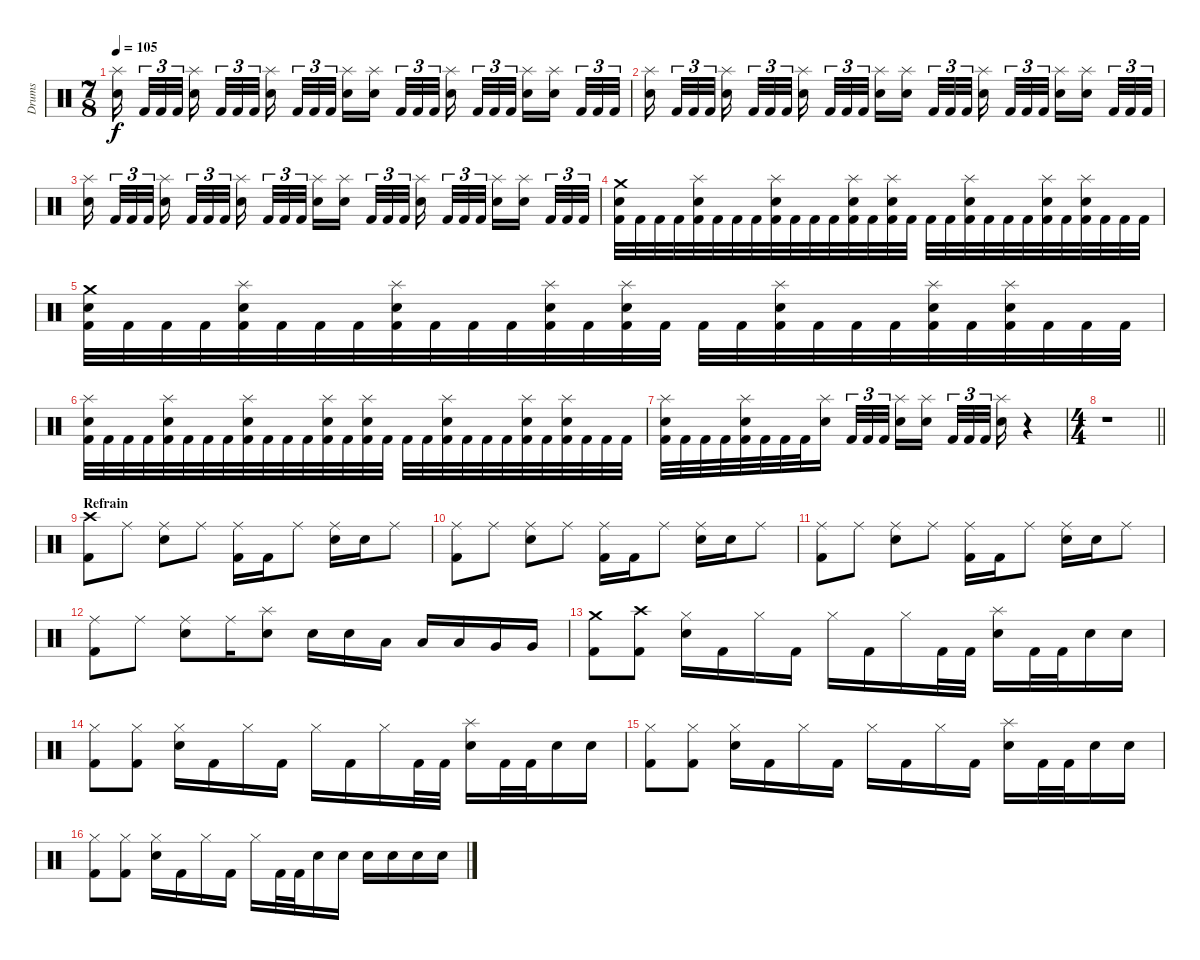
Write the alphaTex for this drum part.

\track ("Drums" "Drums") {instrument percussion}
\staff {score}
\articulation defaults
\ts (7 8)
\tempo 105
\clef neutral
\ks c
("Splash (hit)" "Electric Snare (hit)").16{dy f beam splitsecondary} "Kick (hit) 2".32{tu (3 2)} "Kick (hit) 2".32{tu (3 2)} "Kick (hit) 2".32{tu (3 2)} ("Splash (hit)" "Electric Snare (hit)").16{beam splitsecondary} "Kick (hit) 2".32{tu (3 2)} "Kick (hit) 2".32{tu (3 2)} "Kick (hit) 2".32{tu (3 2)} ("Splash (hit)" "Electric Snare (hit)").16{beam splitsecondary} "Kick (hit) 2".32{tu (3 2)} "Kick (hit) 2".32{tu (3 2)} "Kick (hit) 2".32{tu (3 2)} ("Splash (hit)" "Electric Snare (hit)").16 ("Splash (hit)" "Electric Snare (hit)").16 "Kick (hit) 2".32{tu (3 2)} "Kick (hit) 2".32{tu (3 2)} "Kick (hit) 2".32{tu (3 2) beam splitsecondary} ("Splash (hit)" "Electric Snare (hit)").16 "Kick (hit) 2".32{tu (3 2)} "Kick (hit) 2".32{tu (3 2)} "Kick (hit) 2".32{tu (3 2) beam splitsecondary} ("Splash (hit)" "Electric Snare (hit)").16 ("Splash (hit)" "Electric Snare (hit)").16{beam splitsecondary} "Kick (hit) 2".32{tu (3 2)} "Kick (hit) 2".32{tu (3 2)} "Kick (hit) 2".32{tu (3 2)} |
("Splash (hit)" "Electric Snare (hit)").16{beam splitsecondary} "Kick (hit) 2".32{tu (3 2)} "Kick (hit) 2".32{tu (3 2)} "Kick (hit) 2".32{tu (3 2)} ("Splash (hit)" "Electric Snare (hit)").16{beam splitsecondary} "Kick (hit) 2".32{tu (3 2)} "Kick (hit) 2".32{tu (3 2)} "Kick (hit) 2".32{tu (3 2)} ("Splash (hit)" "Electric Snare (hit)").16{beam splitsecondary} "Kick (hit) 2".32{tu (3 2)} "Kick (hit) 2".32{tu (3 2)} "Kick (hit) 2".32{tu (3 2)} ("Splash (hit)" "Electric Snare (hit)").16 ("Splash (hit)" "Electric Snare (hit)").16 "Kick (hit) 2".32{tu (3 2)} "Kick (hit) 2".32{tu (3 2)} "Kick (hit) 2".32{tu (3 2) beam splitsecondary} ("Splash (hit)" "Electric Snare (hit)").16 "Kick (hit) 2".32{tu (3 2)} "Kick (hit) 2".32{tu (3 2)} "Kick (hit) 2".32{tu (3 2) beam splitsecondary} ("Splash (hit)" "Electric Snare (hit)").16 ("Splash (hit)" "Electric Snare (hit)").16{beam splitsecondary} "Kick (hit) 2".32{tu (3 2)} "Kick (hit) 2".32{tu (3 2)} "Kick (hit) 2".32{tu (3 2)} |
("Splash (hit)" "Electric Snare (hit)").16{beam splitsecondary} "Kick (hit) 2".32{tu (3 2)} "Kick (hit) 2".32{tu (3 2)} "Kick (hit) 2".32{tu (3 2)} ("Splash (hit)" "Electric Snare (hit)").16{beam splitsecondary} "Kick (hit) 2".32{tu (3 2)} "Kick (hit) 2".32{tu (3 2)} "Kick (hit) 2".32{tu (3 2)} ("Splash (hit)" "Electric Snare (hit)").16{beam splitsecondary} "Kick (hit) 2".32{tu (3 2)} "Kick (hit) 2".32{tu (3 2)} "Kick (hit) 2".32{tu (3 2)} ("Splash (hit)" "Electric Snare (hit)").16 ("Splash (hit)" "Electric Snare (hit)").16 "Kick (hit) 2".32{tu (3 2)} "Kick (hit) 2".32{tu (3 2)} "Kick (hit) 2".32{tu (3 2) beam splitsecondary} ("Splash (hit)" "Electric Snare (hit)").16 "Kick (hit) 2".32{tu (3 2)} "Kick (hit) 2".32{tu (3 2)} "Kick (hit) 2".32{tu (3 2) beam splitsecondary} ("Splash (hit)" "Electric Snare (hit)").16 ("Splash (hit)" "Electric Snare (hit)").16{beam splitsecondary} "Kick (hit) 2".32{tu (3 2)} "Kick (hit) 2".32{tu (3 2)} "Kick (hit) 2".32{tu (3 2)} |
("Crash medium (hit)" "Electric Snare (hit)" "Kick (hit) 2").32 "Kick (hit) 2".32 "Kick (hit) 2".32 "Kick (hit) 2".32 ("Splash (hit)" "Electric Snare (hit)" "Kick (hit) 2").32 "Kick (hit) 2".32 "Kick (hit) 2".32 "Kick (hit) 2".32 ("Splash (hit)" "Electric Snare (hit)" "Kick (hit) 2").32 "Kick (hit) 2".32 "Kick (hit) 2".32 "Kick (hit) 2".32 ("Splash (hit)" "Electric Snare (hit)" "Kick (hit) 2").32 "Kick (hit) 2".32 ("Splash (hit)" "Electric Snare (hit)" "Kick (hit) 2").32 "Kick (hit) 2".32 "Kick (hit) 2".32 "Kick (hit) 2".32 ("Splash (hit)" "Electric Snare (hit)" "Kick (hit) 2").32 "Kick (hit) 2".32 "Kick (hit) 2".32 "Kick (hit) 2".32 ("Splash (hit)" "Electric Snare (hit)" "Kick (hit) 2").32 "Kick (hit) 2".32 ("Splash (hit)" "Electric Snare (hit)" "Kick (hit) 2").32 "Kick (hit) 2".32 "Kick (hit) 2".32 "Kick (hit) 2".32 |
("Crash medium (hit)" "Electric Snare (hit)" "Kick (hit) 2").32 "Kick (hit) 2".32 "Kick (hit) 2".32 "Kick (hit) 2".32 ("Splash (hit)" "Electric Snare (hit)" "Kick (hit) 2").32 "Kick (hit) 2".32 "Kick (hit) 2".32 "Kick (hit) 2".32 ("Splash (hit)" "Electric Snare (hit)" "Kick (hit) 2").32 "Kick (hit) 2".32 "Kick (hit) 2".32 "Kick (hit) 2".32 ("Splash (hit)" "Electric Snare (hit)" "Kick (hit) 2").32 "Kick (hit) 2".32 ("Splash (hit)" "Electric Snare (hit)" "Kick (hit) 2").32 "Kick (hit) 2".32 "Kick (hit) 2".32 "Kick (hit) 2".32 ("Splash (hit)" "Electric Snare (hit)" "Kick (hit) 2").32 "Kick (hit) 2".32 "Kick (hit) 2".32 "Kick (hit) 2".32 ("Splash (hit)" "Electric Snare (hit)" "Kick (hit) 2").32 "Kick (hit) 2".32 ("Splash (hit)" "Electric Snare (hit)" "Kick (hit) 2").32 "Kick (hit) 2".32 "Kick (hit) 2".32 "Kick (hit) 2".32 |
("Splash (hit)" "Electric Snare (hit)" "Kick (hit) 2").32 "Kick (hit) 2".32 "Kick (hit) 2".32 "Kick (hit) 2".32 ("Splash (hit)" "Electric Snare (hit)" "Kick (hit) 2").32 "Kick (hit) 2".32 "Kick (hit) 2".32 "Kick (hit) 2".32 ("Splash (hit)" "Electric Snare (hit)" "Kick (hit) 2").32 "Kick (hit) 2".32 "Kick (hit) 2".32 "Kick (hit) 2".32 ("Splash (hit)" "Electric Snare (hit)" "Kick (hit) 2").32 "Kick (hit) 2".32 ("Splash (hit)" "Electric Snare (hit)" "Kick (hit) 2").32 "Kick (hit) 2".32 "Kick (hit) 2".32 "Kick (hit) 2".32 ("Splash (hit)" "Electric Snare (hit)" "Kick (hit) 2").32 "Kick (hit) 2".32 "Kick (hit) 2".32 "Kick (hit) 2".32 ("Splash (hit)" "Electric Snare (hit)" "Kick (hit) 2").32 "Kick (hit) 2".32 ("Splash (hit)" "Electric Snare (hit)" "Kick (hit) 2").32 "Kick (hit) 2".32 "Kick (hit) 2".32 "Kick (hit) 2".32 |
("Splash (hit)" "Electric Snare (hit)" "Kick (hit) 2").32 "Kick (hit) 2".32 "Kick (hit) 2".32 "Kick (hit) 2".32 ("Splash (hit)" "Electric Snare (hit)" "Kick (hit) 2").32 "Kick (hit) 2".32 "Kick (hit) 2".32 "Kick (hit) 2".32 ("Splash (hit)" "Electric Snare (hit)").16{beam splitsecondary} "Kick (hit) 2".32{tu (3 2)} "Kick (hit) 2".32{tu (3 2)} "Kick (hit) 2".32{tu (3 2)} ("Splash (hit)" "Electric Snare (hit)").16 ("Splash (hit)" "Electric Snare (hit)").16 "Kick (hit) 2".32{tu (3 2)} "Kick (hit) 2".32{tu (3 2)} "Kick (hit) 2".32{tu (3 2) beam splitsecondary} ("Splash (hit)" "Electric Snare (hit)").16 r.4 |
\ts (4 4)
\barLineRight lightlight
r.1 |
\section ("" "Refrain")
("Crash high (hit)" "Kick (hit) 2").8 "Ride (middle)".8 ("Ride (middle)" "Electric Snare (hit)").8 "Ride (middle)".8 ("Ride (middle)" "Kick (hit) 2").16 "Kick (hit) 2".16 "Ride (middle)".8 ("Ride (middle)" "Electric Snare (hit)").16 "Electric Snare (hit)".16 "Ride (middle)".8 |
("Ride (middle)" "Kick (hit) 2").8 "Ride (middle)".8 ("Ride (middle)" "Electric Snare (hit)").8 "Ride (middle)".8 ("Ride (middle)" "Kick (hit) 2").16 "Kick (hit) 2".16 "Ride (middle)".8 ("Ride (middle)" "Electric Snare (hit)").16 "Electric Snare (hit)".16 "Ride (middle)".8 |
("Ride (middle)" "Kick (hit) 2").8 "Ride (middle)".8 ("Ride (middle)" "Electric Snare (hit)").8 "Ride (middle)".8 ("Ride (middle)" "Kick (hit) 2").16 "Kick (hit) 2".16 "Ride (middle)".8 ("Ride (middle)" "Electric Snare (hit)").16 "Electric Snare (hit)".16 "Ride (middle)".8 |
("Ride (middle)" "Kick (hit) 2").8 "Ride (middle)".8 ("Ride (middle)" "Electric Snare (hit)").8 "Ride (middle)".16 ("Splash (hit)" "Electric Snare (hit)").8 "Electric Snare (hit)".16 "Electric Snare (hit)".16 "Low Tom (hit)".16 "Low Tom (hit)".16 "Low Tom (hit)".16 "Very Low Tom (hit)".16 "Very Low Tom (hit)".16 |
("Crash medium (hit)" "Kick (hit) 2").8 ("Crash high (hit)" "Kick (hit) 2").8 ("Hi-Hat (closed)" "Electric Snare (hit)").16 "Kick (hit) 2".16 "Hi-Hat (closed)".16 "Kick (hit) 2".16 "Hi-Hat (closed)".16 "Kick (hit) 2".16 "Hi-Hat (closed)".16 "Kick (hit) 2".32 "Kick (hit) 2".32 ("Splash (hit)" "Electric Snare (hit)").16 "Kick (hit) 2".32 "Kick (hit) 2".32 "Electric Snare (hit)".16 "Electric Snare (hit)".16 |
("Hi-Hat (closed)" "Kick (hit) 2").8 ("Hi-Hat (closed)" "Kick (hit) 2").8 ("Hi-Hat (closed)" "Electric Snare (hit)").16 "Kick (hit) 2".16 "Hi-Hat (closed)".16 "Kick (hit) 2".16 "Hi-Hat (closed)".16 "Kick (hit) 2".16 "Hi-Hat (closed)".16 "Kick (hit) 2".32 "Kick (hit) 2".32 ("Splash (hit)" "Electric Snare (hit)").16 "Kick (hit) 2".32 "Kick (hit) 2".32 "Electric Snare (hit)".16 "Electric Snare (hit)".16 |
("Hi-Hat (closed)" "Kick (hit) 2").8 ("Hi-Hat (closed)" "Kick (hit) 2").8 ("Hi-Hat (closed)" "Electric Snare (hit)").16 "Kick (hit) 2".16 "Hi-Hat (closed)".16 "Kick (hit) 2".16 "Hi-Hat (closed)".16 "Kick (hit) 2".16 "Hi-Hat (closed)".16 "Kick (hit) 2".16 ("Splash (hit)" "Electric Snare (hit)").16 "Kick (hit) 2".32 "Kick (hit) 2".32 "Electric Snare (hit)".16 "Electric Snare (hit)".16 |
("Hi-Hat (closed)" "Kick (hit) 2").8 ("Hi-Hat (closed)" "Kick (hit) 2").8 ("Hi-Hat (closed)" "Electric Snare (hit)").16 "Kick (hit) 2".16 "Hi-Hat (closed)".16 "Kick (hit) 2".16 "Hi-Hat (closed)".16 "Kick (hit) 2".32 "Kick (hit) 2".32 "Electric Snare (hit)".16 "Electric Snare (hit)".16 "Electric Snare (hit)".16 "Electric Snare (hit)".16 "Electric Snare (hit)".16 "Electric Snare (hit)".16
